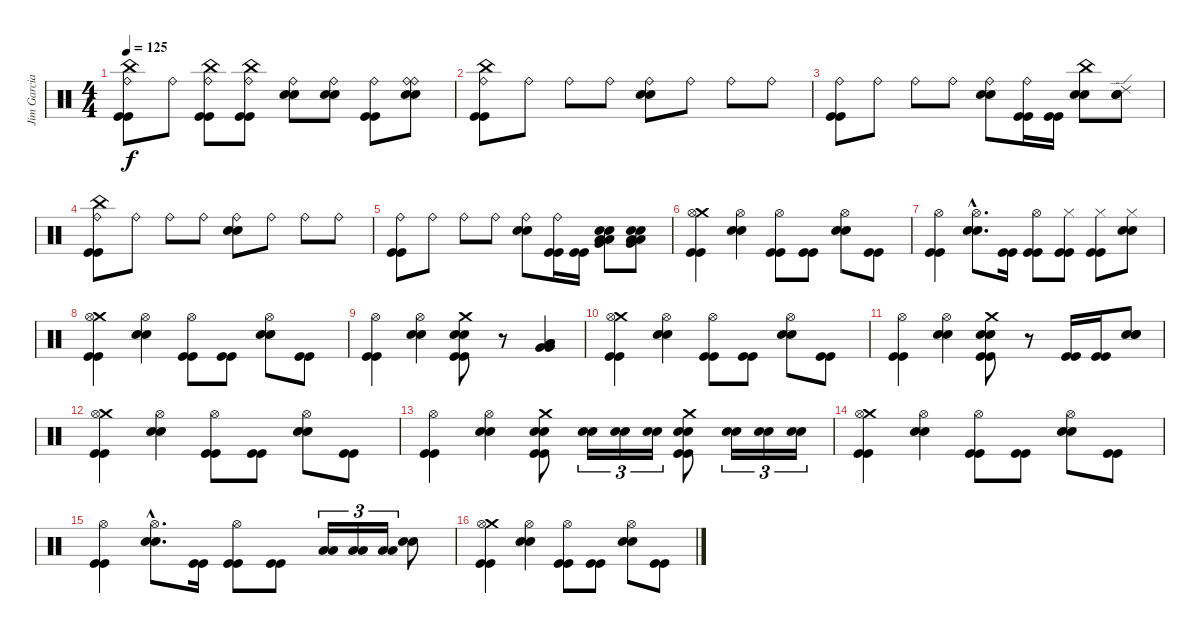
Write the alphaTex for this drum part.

\track ("Jim Garcia" "Jim Garcia") {instrument percussion}
\staff {score}
\articulation defaults
\ts (4 4)
\tempo 125
\clef neutral
\ks c
("China (hit)" "Ride (bell)" "Kick (hit)" "Kick (hit)").8{dy f} "Ride (bell)".8 ("China (hit)" "Ride (bell)" "Kick (hit)" "Kick (hit)").8 ("China (hit)" "Ride (bell)" "Kick (hit)" "Kick (hit)").8 ("Snare (hit) 2" "Snare (hit) 2" "Ride (bell)").8 ("Snare (hit) 2" "Snare (hit) 2" "Ride (bell)").8 ("Ride (bell)" "Kick (hit)" "Kick (hit)").8 ("Ride (bell)" "Snare (hit) 2" "Snare (hit) 2" "Ride (bell)").8 |
("China (hit)" "Ride (bell)" "Kick (hit)" "Kick (hit)").8 "Ride (bell)".8 "Ride (bell)".8 "Ride (bell)".8 ("Snare (hit) 2" "Snare (hit) 2" "Ride (bell)").8 "Ride (bell)".8 "Ride (bell)".8 "Ride (bell)".8 |
("Ride (bell)" "Kick (hit)" "Kick (hit)").8 "Ride (bell)".8 "Ride (bell)".8 "Ride (bell)".8 ("Snare (hit) 2" "Snare (hit) 2" "Ride (bell)").8 ("Ride (bell)" "Kick (hit)" "Kick (hit)").16 ("Kick (hit)" "Kick (hit)").16 ("China (hit)" "Snare (hit) 2" "Snare (hit) 2").8 ("Ride (edge) 2" "Snare (hit) 2" "Snare (hit) 2").8 |
("China (hit)" "Ride (bell)" "Kick (hit)" "Kick (hit)").8 "Ride (bell)".8 "Ride (bell)".8 "Ride (bell)".8 ("Snare (hit) 2" "Snare (hit) 2" "Ride (bell)").8 "Ride (bell)".8 "Ride (bell)".8 "Ride (bell)".8 |
("Ride (bell)" "Kick (hit)" "Kick (hit)").8 "Ride (bell)".8 "Ride (bell)".8 "Ride (bell)".8 ("Snare (hit) 2" "Snare (hit) 2" "Ride (bell)").8 ("Ride (bell)" "Kick (hit)" "Kick (hit)").16 ("Kick (hit)" "Kick (hit)").16 ("Snare (hit) 2" "Snare (hit) 2" "Very Low Tom (hit)" "Low Floor Tom (hit)" "Low Floor Tom (hit)").8 ("Snare (hit) 2" "Snare (hit) 2" "Very Low Tom (hit)" "Low Floor Tom (hit)" "Low Floor Tom (hit)").8 |
("Crash medium (hit)" "Hi-Hat (open)" "Kick (hit)" "Kick (hit)").4 ("Snare (hit) 2" "Snare (hit) 2" "Hi-Hat (open)").4 ("Hi-Hat (open)" "Kick (hit)" "Kick (hit)").8 ("Kick (hit)" "Kick (hit)").8 ("Snare (hit) 2" "Snare (hit) 2" "Hi-Hat (open)").8 ("Kick (hit)" "Kick (hit)").8 |
("Hi-Hat (open)" "Kick (hit)" "Kick (hit)").4 ("Snare (hit) 2"{hac} "Snare (hit) 2"{hac} "Hi-Hat (open)"{hac}).8{d} ("Kick (hit)" "Kick (hit)").16 ("Hi-Hat (open)" "Kick (hit)" "Kick (hit)").8 ("Hi-Hat (closed)" "Kick (hit)" "Kick (hit)").8 ("Hi-Hat (closed)" "Kick (hit)" "Kick (hit)").8 ("Snare (hit) 2" "Snare (hit) 2" "Hi-Hat (closed)").8 |
("Crash medium (hit)" "Hi-Hat (open)" "Kick (hit)" "Kick (hit)").4 ("Snare (hit) 2" "Snare (hit) 2" "Hi-Hat (open)").4 ("Hi-Hat (open)" "Kick (hit)" "Kick (hit)").8 ("Kick (hit)" "Kick (hit)").8 ("Snare (hit) 2" "Snare (hit) 2" "Hi-Hat (open)").8 ("Kick (hit)" "Kick (hit)").8 |
("Hi-Hat (open)" "Kick (hit)" "Kick (hit)").4 ("Snare (hit) 2" "Snare (hit) 2" "Hi-Hat (open)").4 ("Crash medium (hit)" "Snare (hit) 2" "Snare (hit) 2" "Kick (hit)" "Kick (hit)").8 r.8 ("Very Low Tom (hit)" "Very Low Tom (hit)" "Low Floor Tom (hit)" "Low Floor Tom (hit)").4 |
("Crash medium (hit)" "Hi-Hat (open)" "Kick (hit)" "Kick (hit)").4 ("Snare (hit) 2" "Snare (hit) 2" "Hi-Hat (open)").4 ("Hi-Hat (open)" "Kick (hit)" "Kick (hit)").8 ("Kick (hit)" "Kick (hit)").8 ("Snare (hit) 2" "Snare (hit) 2" "Hi-Hat (open)").8 ("Kick (hit)" "Kick (hit)").8 |
("Hi-Hat (open)" "Kick (hit)" "Kick (hit)").4 ("Snare (hit) 2" "Snare (hit) 2" "Hi-Hat (open)").4 ("Crash medium (hit)" "Snare (hit) 2" "Snare (hit) 2" "Kick (hit)" "Kick (hit)").8 r.8 ("Kick (hit)" "Kick (hit)").16 ("Kick (hit)" "Kick (hit)").16 ("Snare (hit) 2" "Snare (hit) 2" "Snare (hit) 2").8 |
("Crash medium (hit)" "Hi-Hat (open)" "Kick (hit)" "Kick (hit)").4 ("Snare (hit) 2" "Snare (hit) 2" "Hi-Hat (open)").4 ("Hi-Hat (open)" "Kick (hit)" "Kick (hit)").8 ("Kick (hit)" "Kick (hit)").8 ("Snare (hit) 2" "Snare (hit) 2" "Hi-Hat (open)").8 ("Kick (hit)" "Kick (hit)").8 |
("Hi-Hat (open)" "Kick (hit)" "Kick (hit)").4 ("Snare (hit) 2" "Snare (hit) 2" "Hi-Hat (open)").4 ("Crash medium (hit)" "Snare (hit) 2" "Snare (hit) 2" "Kick (hit)" "Kick (hit)").8 ("Snare (hit) 2" "Snare (hit) 2").16{tu (3 2)} ("Snare (hit) 2" "Snare (hit) 2").16{tu (3 2)} ("Snare (hit) 2" "Snare (hit) 2").16{tu (3 2)} ("Crash medium (hit)" "Snare (hit) 2" "Snare (hit) 2" "Kick (hit)" "Kick (hit)").8 ("Snare (hit) 2" "Snare (hit) 2").16{tu (3 2)} ("Snare (hit) 2" "Snare (hit) 2").16{tu (3 2)} ("Snare (hit) 2" "Snare (hit) 2").16{tu (3 2)} |
("Crash medium (hit)" "Hi-Hat (open)" "Kick (hit)" "Kick (hit)").4 ("Snare (hit) 2" "Snare (hit) 2" "Hi-Hat (open)").4 ("Hi-Hat (open)" "Kick (hit)" "Kick (hit)").8 ("Kick (hit)" "Kick (hit)").8 ("Snare (hit) 2" "Snare (hit) 2" "Hi-Hat (open)").8 ("Kick (hit)" "Kick (hit)").8 |
("Hi-Hat (open)" "Kick (hit)" "Kick (hit)").4 ("Snare (hit) 2"{hac} "Snare (hit) 2"{hac} "Hi-Hat (open)"{hac}).8{d} ("Kick (hit)" "Kick (hit)").16 ("Hi-Hat (open)" "Kick (hit)" "Kick (hit)").8 ("Kick (hit)" "Kick (hit)").8 ("Low Tom (hit)" "Low Tom (hit)").16{tu (3 2)} ("Low Tom (hit)" "Low Tom (hit)").16{tu (3 2)} ("Low Tom (hit)" "Low Tom (hit)").16{tu (3 2)} ("Snare (hit) 2" "Snare (hit) 2").8 |
("Crash medium (hit)" "Hi-Hat (open)" "Kick (hit)" "Kick (hit)").4 ("Snare (hit) 2" "Snare (hit) 2" "Hi-Hat (open)").4 ("Hi-Hat (open)" "Kick (hit)" "Kick (hit)").8 ("Kick (hit)" "Kick (hit)").8 ("Snare (hit) 2" "Snare (hit) 2" "Hi-Hat (open)").8 ("Kick (hit)" "Kick (hit)").8
